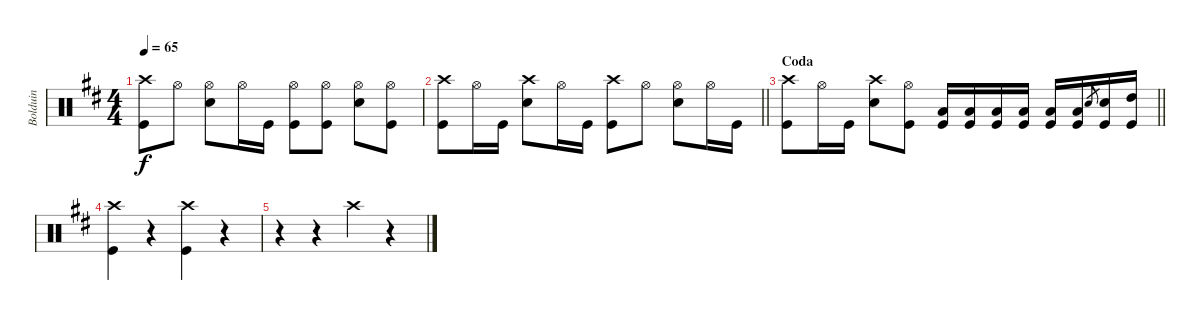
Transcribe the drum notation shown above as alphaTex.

\track ("Bolduin" "Bolduin") {instrument percussion}
\staff {score}
\articulation defaults
\ts (4 4)
\tempo 65
\clef neutral
\ks d
("Kick (hit)" "Crash high (hit)").8{dy f} "Hi-Hat (open)".8 ("Hi-Hat (open)" "Snare (hit) 2").8 "Hi-Hat (open)".16 "Kick (hit)".16 ("Kick (hit)" "Hi-Hat (open)").8 ("Hi-Hat (open)" "Kick (hit)").8 ("Hi-Hat (open)" "Snare (hit) 2").8 ("Hi-Hat (open)" "Kick (hit)").8 |
\barLineRight lightlight
("Kick (hit)" "Crash high (hit)").8 "Hi-Hat (open)".16 "Kick (hit)".16 ("Crash high (hit)" "Snare (hit) 2").8 "Hi-Hat (open)".16 "Kick (hit)".16 ("Kick (hit)" "Crash high (hit)").8 "Hi-Hat (open)".8 ("Hi-Hat (open)" "Snare (hit) 2").8 "Hi-Hat (open)".16 "Kick (hit)".16 |
\section ("" "Coda")
\barLineRight lightlight
("Kick (hit)" "Crash high (hit)").8 "Hi-Hat (open)".16 "Kick (hit)".16 ("Crash high (hit)" "Snare (hit) 2").8 ("Hi-Hat (open)" "Kick (hit)").8 ("Low Tom (hit)" "Kick (hit)").16 ("Kick (hit)" "Low Tom (hit)").16 ("Kick (hit)" "Low Tom (hit)").16 ("Kick (hit)" "Low Tom (hit)").16 ("Kick (hit)" "Low Tom (hit)").16 ("Kick (hit)" "Low Tom (hit)").16 "Snare (hit) 2".8{gr} ("Kick (hit)" "Snare (hit) 2").16 ("Kick (hit)" "High Tom (hit)").16 |
("Kick (hit)" "Crash high (hit)").4 r.4 ("Crash high (hit)" "Kick (hit)").4 r.4 |
r.4 r.4 "Crash high (hit)".4 r.4
